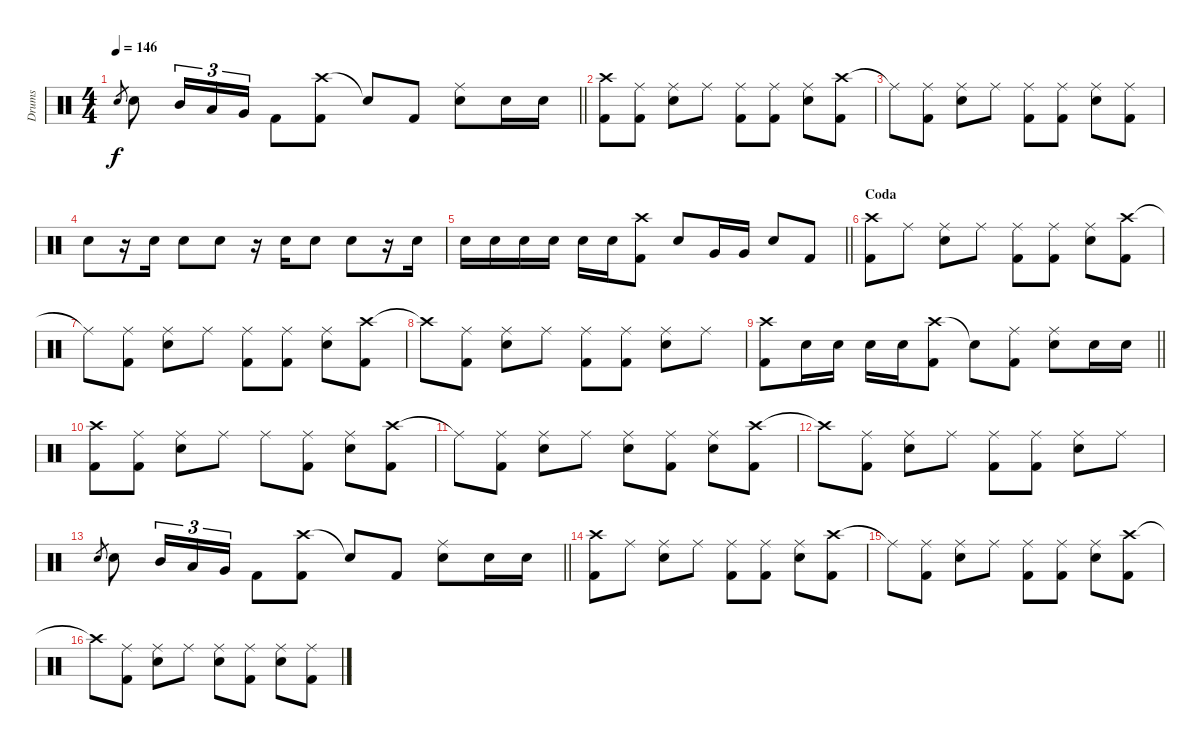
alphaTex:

\track ("Drums" "Drums") {instrument percussion}
\staff {score}
\articulation defaults
\ts (4 4)
\tempo 146
\clef neutral
\barLineRight lightlight
\ks c "Snare (hit) 2".8{gr dy f} "Snare (hit) 2".8 "Mid Tom (hit)".16{tu (3 2)} "Low Tom (hit)".16{tu (3 2)} "Very Low Tom (hit)".16{tu (3 2)} "Kick (hit) 2".8
("Crash high (hit)" "Kick (hit) 2").8 "Snare (hit)"{t}.8 "Kick (hit) 2".8 ("Ride (middle)" "Snare (hit) 2").8 "Snare (hit) 2".16 "Snare (hit) 2".16 |
("Crash high (hit)" "Kick (hit) 2").8 ("Ride (middle)" "Kick (hit) 2").8 ("Ride (middle)" "Snare (hit) 2").8 "Ride (middle)".8 ("Ride (middle)" "Kick (hit) 2").8 ("Ride (middle)" "Kick (hit) 2").8 ("Ride (middle)" "Snare (hit) 2").8 ("Crash high (hit)" "Kick (hit) 2").8 |
"Ride (middle)"{t}.8 ("Ride (middle)" "Kick (hit) 2").8 ("Ride (middle)" "Snare (hit) 2").8 "Ride (middle)".8 ("Ride (middle)" "Kick (hit) 2").8 ("Ride (middle)" "Kick (hit) 2").8 ("Ride (middle)" "Snare (hit) 2").8 ("Ride (middle)" "Kick (hit) 2").8 |
"Snare (hit) 2".8 r.16 "Snare (hit) 2".16 "Snare (hit) 2".8 "Snare (hit) 2".8 r.16 "Snare (hit) 2".16 "Snare (hit) 2".8 "Snare (hit) 2".8 r.16 "Snare (hit) 2".16 |
\barLineRight lightlight "Snare (hit) 2".16 "Snare (hit) 2".16 "Snare (hit) 2".16 "Snare (hit) 2".16 "Snare (hit) 2".16 "Snare (hit) 2".16
("Crash high (hit)" "Kick (hit) 2").8 "Snare (hit) 2".8 "Very Low Tom (hit)".16 "Very Low Tom (hit)".16 "Snare (hit) 2".8 "Kick (hit) 2".8 |
\section ("" "Coda")
("Crash high (hit)" "Kick (hit) 2").8 "Ride (middle)".8 ("Ride (middle)" "Snare (hit) 2").8 "Ride (middle)".8 ("Ride (middle)" "Kick (hit) 2").8 ("Ride (middle)" "Kick (hit) 2").8 ("Ride (middle)" "Snare (hit) 2").8 ("Crash high (hit)" "Kick (hit) 2").8 |
"Ride (middle)"{t}.8 ("Ride (middle)" "Kick (hit) 2").8 ("Ride (middle)" "Snare (hit) 2").8 "Ride (middle)".8 ("Ride (middle)" "Kick (hit) 2").8 ("Ride (middle)" "Kick (hit) 2").8 ("Ride (middle)" "Snare (hit) 2").8 ("Crash high (hit)" "Kick (hit) 2").8 |
"Crash high (hit)"{t}.8 ("Ride (middle)" "Kick (hit) 2").8 ("Ride (middle)" "Snare (hit) 2").8 "Ride (middle)".8 ("Ride (middle)" "Kick (hit) 2").8 ("Ride (middle)" "Kick (hit) 2").8 ("Ride (middle)" "Snare (hit) 2").8 "Ride (middle)".8 |
\barLineRight lightlight
("Crash high (hit)" "Kick (hit) 2").8 "Snare (hit) 2".16 "Snare (hit) 2".16 "Snare (hit) 2".16 "Snare (hit) 2".16 ("Crash high (hit)" "Kick (hit) 2").8 "Snare (hit)"{t}.8 ("Ride (middle)" "Kick (hit) 2").8 ("Ride (middle)" "Snare (hit) 2").8 "Snare (hit) 2".16 "Snare (hit) 2".16 |
("Crash high (hit)" "Kick (hit) 2").8 ("Ride (middle)" "Kick (hit) 2").8 ("Ride (middle)" "Snare (hit) 2").8 "Ride (middle)".8 "Ride (middle)".8 ("Ride (middle)" "Kick (hit) 2").8 ("Ride (middle)" "Snare (hit) 2").8 ("Crash high (hit)" "Kick (hit) 2").8 |
"Ride (middle)"{t}.8 ("Ride (middle)" "Kick (hit) 2").8 ("Ride (middle)" "Snare (hit) 2").8 "Ride (middle)".8 ("Ride (middle)" "Snare (hit) 2").8 ("Ride (middle)" "Kick (hit) 2").8 ("Ride (middle)" "Snare (hit) 2").8 ("Crash high (hit)" "Kick (hit) 2").8 |
"Crash high (hit)"{t}.8 ("Ride (middle)" "Kick (hit) 2").8 ("Ride (middle)" "Snare (hit) 2").8 "Ride (middle)".8 ("Ride (middle)" "Kick (hit) 2").8 ("Ride (middle)" "Kick (hit) 2").8 ("Ride (middle)" "Snare (hit) 2").8 "Ride (middle)".8 |
\barLineRight lightlight "Snare (hit) 2".8{gr} "Snare (hit) 2".8 "Mid Tom (hit)".16{tu (3 2)} "Low Tom (hit)".16{tu (3 2)} "Very Low Tom (hit)".16{tu (3 2)} "Kick (hit) 2".8
("Crash high (hit)" "Kick (hit) 2").8 "Snare (hit)"{t}.8 "Kick (hit) 2".8 ("Ride (middle)" "Snare (hit) 2").8 "Snare (hit) 2".16 "Snare (hit) 2".16 |
("Crash high (hit)" "Kick (hit) 2").8 "Ride (middle)".8 ("Ride (middle)" "Snare (hit) 2").8 "Ride (middle)".8 ("Ride (middle)" "Kick (hit) 2").8 ("Ride (middle)" "Kick (hit) 2").8 ("Ride (middle)" "Snare (hit) 2").8 ("Crash high (hit)" "Kick (hit) 2").8 |
"Ride (middle)"{t}.8 ("Ride (middle)" "Kick (hit) 2").8 ("Ride (middle)" "Snare (hit) 2").8 "Ride (middle)".8 ("Ride (middle)" "Kick (hit) 2").8 ("Ride (middle)" "Kick (hit) 2").8 ("Ride (middle)" "Snare (hit) 2").8 ("Crash high (hit)" "Kick (hit) 2").8 |
"Crash high (hit)"{t}.8 ("Ride (middle)" "Kick (hit) 2").8 ("Ride (middle)" "Snare (hit) 2").8 "Ride (middle)".8 ("Ride (middle)" "Snare (hit) 2").8 ("Ride (middle)" "Kick (hit) 2").8 ("Ride (middle)" "Snare (hit) 2").8 ("Ride (middle)" "Kick (hit) 2").8
